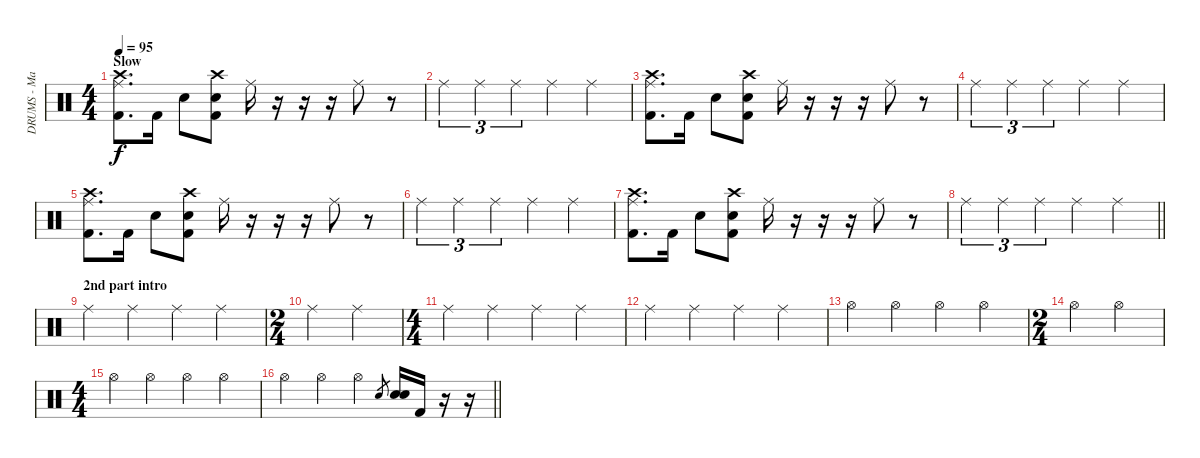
\track ("DRUMS - Mario Duplantier" "DRUMS - Ma") {instrument percussion}
\staff {score}
\articulation defaults
\ts (4 4)
\section ("" "Slow")
\tempo 95
\clef neutral
\ks c
("Crash high (hit)" "Ride (middle)" "Kick (hit) 2").8{d dy f} "Kick (hit) 2".16 "Electric Snare (hit)".8 ("Crash high (hit)" "Electric Snare (hit)" "Kick (hit) 2").8 "Ride (middle)".16 r.16 r.16 r.16 "Ride (middle)".8 r.8 |
"Ride (middle)".4{tu (3 2)} "Ride (middle)".4{tu (3 2)} "Ride (middle)".4{tu (3 2)} "Ride (middle)".4 "Ride (middle)".4 |
("Crash high (hit)" "Ride (middle)" "Kick (hit) 2").8{d} "Kick (hit) 2".16 "Electric Snare (hit)".8 ("Crash high (hit)" "Electric Snare (hit)" "Kick (hit) 2").8 "Ride (middle)".16 r.16 r.16 r.16 "Ride (middle)".8 r.8 |
"Ride (middle)".4{tu (3 2)} "Ride (middle)".4{tu (3 2)} "Ride (middle)".4{tu (3 2)} "Ride (middle)".4 "Ride (middle)".4 |
("Crash high (hit)" "Ride (middle)" "Kick (hit) 2").8{d} "Kick (hit) 2".16 "Electric Snare (hit)".8 ("Crash high (hit)" "Electric Snare (hit)" "Kick (hit) 2").8 "Ride (middle)".16 r.16 r.16 r.16 "Ride (middle)".8 r.8 |
"Ride (middle)".4{tu (3 2)} "Ride (middle)".4{tu (3 2)} "Ride (middle)".4{tu (3 2)} "Ride (middle)".4 "Ride (middle)".4 |
("Crash high (hit)" "Ride (middle)" "Kick (hit) 2").8{d} "Kick (hit) 2".16 "Electric Snare (hit)".8 ("Crash high (hit)" "Electric Snare (hit)" "Kick (hit) 2").8 "Ride (middle)".16 r.16 r.16 r.16 "Ride (middle)".8 r.8 |
\barLineRight lightlight "Ride (middle)".4{tu (3 2)} "Ride (middle)".4{tu (3 2)} "Ride (middle)".4{tu (3 2)} "Ride (middle)".4 "Ride (middle)".4
|
\section ("" "2nd part intro")
"Ride (middle)".4 "Ride (middle)".4 "Ride (middle)".4 "Ride (middle)".4 |
\ts (2 4)
"Ride (middle)".4 "Ride (middle)".4 |
\ts (4 4)
"Ride (middle)".4 "Ride (middle)".4 "Ride (middle)".4 "Ride (middle)".4 |
"Ride (middle)".4 "Ride (middle)".4 "Ride (middle)".4 "Ride (middle)".4 |
"Hi-Hat (open)".4 "Hi-Hat (open)".4 "Hi-Hat (open)".4 "Hi-Hat (open)".4 |
\ts (2 4)
"Hi-Hat (open)".4 "Hi-Hat (open)".4 |
\ts (4 4)
"Hi-Hat (open)".4 "Hi-Hat (open)".4 "Hi-Hat (open)".4 "Hi-Hat (open)".4 |
\barLineRight lightlight "Hi-Hat (open)".4 "Hi-Hat (open)".4 "Hi-Hat (open)".4 "Electric Snare (hit)".8{gr}
("Electric Snare (hit)" "Electric Snare (hit)").16 "Kick (hit) 2".16 r.16 r.16
